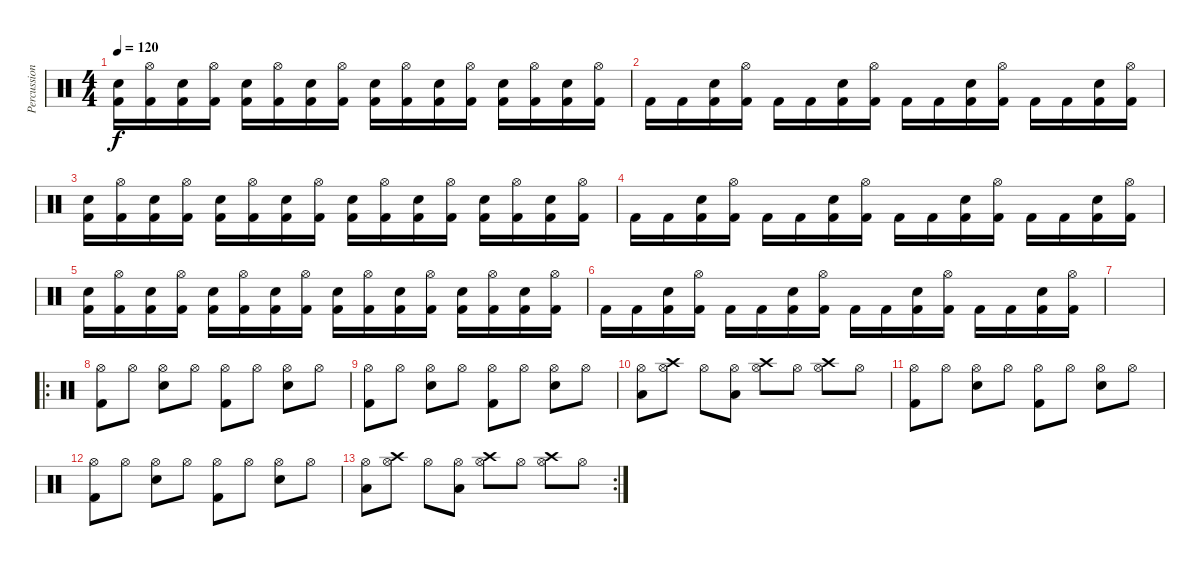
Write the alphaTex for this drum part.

\track ("Percussion" "Percussion") {instrument percussion}
\staff {score}
\articulation defaults
\ts (4 4)
\tempo 120
\clef neutral
\ks c
("Electric Snare (hit)" "Kick (hit) 2").16{dy f} ("Hi-Hat (open)" "Kick (hit) 2").16 ("Electric Snare (hit)" "Kick (hit) 2").16 ("Hi-Hat (open)" "Kick (hit) 2").16 ("Electric Snare (hit)" "Kick (hit) 2").16 ("Hi-Hat (open)" "Kick (hit) 2").16 ("Electric Snare (hit)" "Kick (hit) 2").16 ("Hi-Hat (open)" "Kick (hit) 2").16 ("Electric Snare (hit)" "Kick (hit) 2").16 ("Hi-Hat (open)" "Kick (hit) 2").16 ("Electric Snare (hit)" "Kick (hit) 2").16 ("Hi-Hat (open)" "Kick (hit) 2").16 ("Electric Snare (hit)" "Kick (hit) 2").16 ("Hi-Hat (open)" "Kick (hit) 2").16 ("Electric Snare (hit)" "Kick (hit) 2").16 ("Hi-Hat (open)" "Kick (hit) 2").16 |
"Kick (hit) 2".16 "Kick (hit) 2".16 ("Electric Snare (hit)" "Kick (hit) 2").16 ("Hi-Hat (open)" "Kick (hit) 2").16 "Kick (hit) 2".16 "Kick (hit) 2".16 ("Electric Snare (hit)" "Kick (hit) 2").16 ("Hi-Hat (open)" "Kick (hit) 2").16 "Kick (hit) 2".16 "Kick (hit) 2".16 ("Electric Snare (hit)" "Kick (hit) 2").16 ("Hi-Hat (open)" "Kick (hit) 2").16 "Kick (hit) 2".16 "Kick (hit) 2".16 ("Electric Snare (hit)" "Kick (hit) 2").16 ("Hi-Hat (open)" "Kick (hit) 2").16 |
("Electric Snare (hit)" "Kick (hit) 2").16 ("Hi-Hat (open)" "Kick (hit) 2").16 ("Electric Snare (hit)" "Kick (hit) 2").16 ("Hi-Hat (open)" "Kick (hit) 2").16 ("Electric Snare (hit)" "Kick (hit) 2").16 ("Hi-Hat (open)" "Kick (hit) 2").16 ("Electric Snare (hit)" "Kick (hit) 2").16 ("Hi-Hat (open)" "Kick (hit) 2").16 ("Electric Snare (hit)" "Kick (hit) 2").16 ("Hi-Hat (open)" "Kick (hit) 2").16 ("Electric Snare (hit)" "Kick (hit) 2").16 ("Hi-Hat (open)" "Kick (hit) 2").16 ("Electric Snare (hit)" "Kick (hit) 2").16 ("Hi-Hat (open)" "Kick (hit) 2").16 ("Electric Snare (hit)" "Kick (hit) 2").16 ("Hi-Hat (open)" "Kick (hit) 2").16 |
"Kick (hit) 2".16 "Kick (hit) 2".16 ("Electric Snare (hit)" "Kick (hit) 2").16 ("Hi-Hat (open)" "Kick (hit) 2").16 "Kick (hit) 2".16 "Kick (hit) 2".16 ("Electric Snare (hit)" "Kick (hit) 2").16 ("Hi-Hat (open)" "Kick (hit) 2").16 "Kick (hit) 2".16 "Kick (hit) 2".16 ("Electric Snare (hit)" "Kick (hit) 2").16 ("Hi-Hat (open)" "Kick (hit) 2").16 "Kick (hit) 2".16 "Kick (hit) 2".16 ("Electric Snare (hit)" "Kick (hit) 2").16 ("Hi-Hat (open)" "Kick (hit) 2").16 |
("Electric Snare (hit)" "Kick (hit) 2").16 ("Hi-Hat (open)" "Kick (hit) 2").16 ("Electric Snare (hit)" "Kick (hit) 2").16 ("Hi-Hat (open)" "Kick (hit) 2").16 ("Electric Snare (hit)" "Kick (hit) 2").16 ("Hi-Hat (open)" "Kick (hit) 2").16 ("Electric Snare (hit)" "Kick (hit) 2").16 ("Hi-Hat (open)" "Kick (hit) 2").16 ("Electric Snare (hit)" "Kick (hit) 2").16 ("Hi-Hat (open)" "Kick (hit) 2").16 ("Electric Snare (hit)" "Kick (hit) 2").16 ("Hi-Hat (open)" "Kick (hit) 2").16 ("Electric Snare (hit)" "Kick (hit) 2").16 ("Hi-Hat (open)" "Kick (hit) 2").16 ("Electric Snare (hit)" "Kick (hit) 2").16 ("Hi-Hat (open)" "Kick (hit) 2").16 |
"Kick (hit) 2".16 "Kick (hit) 2".16 ("Electric Snare (hit)" "Kick (hit) 2").16 ("Hi-Hat (open)" "Kick (hit) 2").16 "Kick (hit) 2".16 "Kick (hit) 2".16 ("Electric Snare (hit)" "Kick (hit) 2").16 ("Hi-Hat (open)" "Kick (hit) 2").16 "Kick (hit) 2".16 "Kick (hit) 2".16 ("Electric Snare (hit)" "Kick (hit) 2").16 ("Hi-Hat (open)" "Kick (hit) 2").16 "Kick (hit) 2".16 "Kick (hit) 2".16 ("Electric Snare (hit)" "Kick (hit) 2").16 ("Hi-Hat (open)" "Kick (hit) 2").16 |
|
\ro
("Hi-Hat (open)" "Kick (hit) 2").8 "Hi-Hat (open)".8 ("Hi-Hat (open)" "Electric Snare (hit)").8 "Hi-Hat (open)".8 ("Hi-Hat (open)" "Kick (hit) 2").8 "Hi-Hat (open)".8 ("Hi-Hat (open)" "Electric Snare (hit)").8 "Hi-Hat (open)".8 |
("Hi-Hat (open)" "Kick (hit) 2").8 "Hi-Hat (open)".8 ("Hi-Hat (open)" "Electric Snare (hit)").8 "Hi-Hat (open)".8 ("Hi-Hat (open)" "Kick (hit) 2").8 "Hi-Hat (open)".8 ("Hi-Hat (open)" "Electric Snare (hit)").8 "Hi-Hat (open)".8 |
("Low Tom (hit)" "Hi-Hat (open)").8 ("Crash high (hit)" "Hi-Hat (open)").8 "Hi-Hat (open)".8 ("Low Tom (hit)" "Hi-Hat (open)").8 ("Crash high (hit)" "Hi-Hat (open)").8 "Hi-Hat (open)".8 ("Crash high (hit)" "Hi-Hat (open)").8 "Hi-Hat (open)".8 |
("Hi-Hat (open)" "Kick (hit) 2").8 "Hi-Hat (open)".8 ("Hi-Hat (open)" "Electric Snare (hit)").8 "Hi-Hat (open)".8 ("Hi-Hat (open)" "Kick (hit) 2").8 "Hi-Hat (open)".8 ("Hi-Hat (open)" "Electric Snare (hit)").8 "Hi-Hat (open)".8 |
("Hi-Hat (open)" "Kick (hit) 2").8 "Hi-Hat (open)".8 ("Hi-Hat (open)" "Electric Snare (hit)").8 "Hi-Hat (open)".8 ("Hi-Hat (open)" "Kick (hit) 2").8 "Hi-Hat (open)".8 ("Hi-Hat (open)" "Electric Snare (hit)").8 "Hi-Hat (open)".8 |
\rc 2
("Low Tom (hit)" "Hi-Hat (open)").8 ("Crash high (hit)" "Hi-Hat (open)").8 "Hi-Hat (open)".8 ("Low Tom (hit)" "Hi-Hat (open)").8 ("Crash high (hit)" "Hi-Hat (open)").8 "Hi-Hat (open)".8 ("Crash high (hit)" "Hi-Hat (open)").8 "Hi-Hat (open)".8
